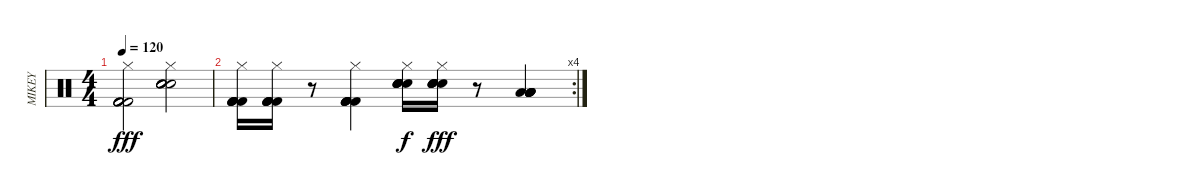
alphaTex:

\track ("MIKEY" "MIKEY") {instrument percussion}
\staff {score}
\articulation defaults
\ts (4 4)
\tempo 120
\clef neutral
\ks c
("Hi-Hat (closed)" "Kick (hit) 2" "Kick (hit) 2" "Kick (hit) 2" "Kick (hit) 2" "Kick (hit) 2").2{dy fff} ("Hi-Hat (closed)" "Snare (hit) 2" "Snare (hit) 2" "Snare (hit) 2" "Snare (hit) 2" "Snare (hit) 2").2 |
\rc 4
("Hi-Hat (closed)" "Kick (hit) 2" "Kick (hit) 2" "Kick (hit) 2" "Kick (hit) 2" "Kick (hit) 2").16 ("Hi-Hat (closed)" "Kick (hit) 2" "Kick (hit) 2" "Kick (hit) 2" "Kick (hit) 2" "Kick (hit) 2").16 r.8 ("Hi-Hat (closed)" "Kick (hit) 2" "Kick (hit) 2" "Kick (hit) 2" "Kick (hit) 2" "Kick (hit) 2").4 ("Hi-Hat (closed)" "Snare (hit) 2" "Snare (hit) 2" "Snare (hit) 2" "Snare (hit) 2" "Snare (hit) 2").16{dy f} ("Hi-Hat (closed)" "Snare (hit) 2" "Snare (hit) 2" "Snare (hit) 2" "Snare (hit) 2" "Snare (hit) 2").16{dy fff} r.8 ("Low Tom (hit)" "Low Tom (hit)" "Low Tom (hit)" "Low Tom (hit)" "Low Tom (hit)" "Low Tom (hit)").4
